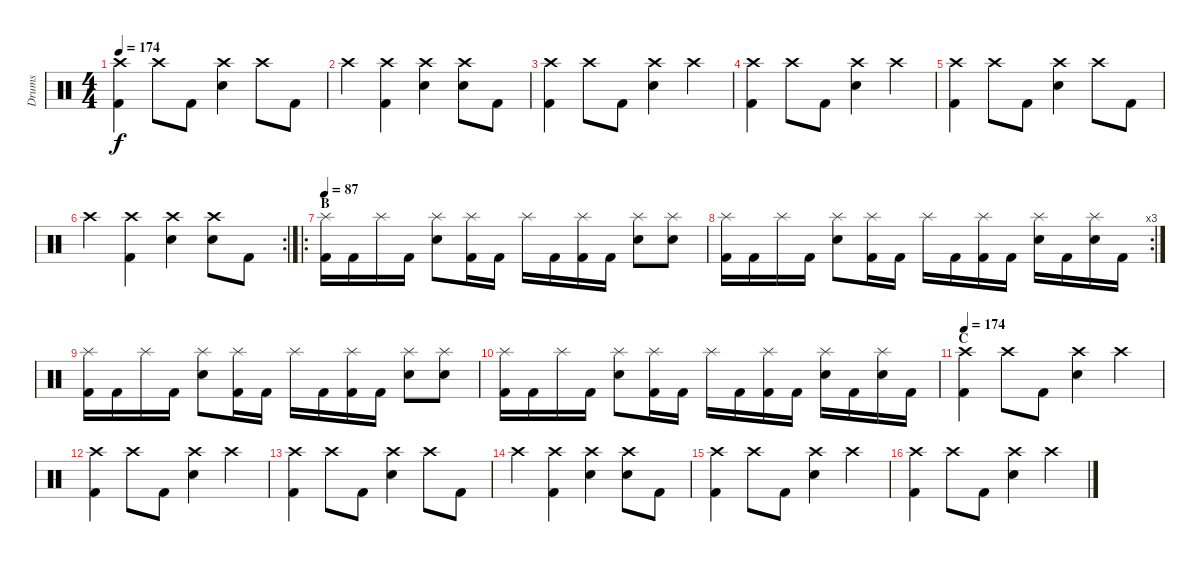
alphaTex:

\track ("Drums" "Drums") {instrument percussion}
\staff {score}
\articulation defaults
\ts (4 4)
\tempo 174
\clef neutral
\ks c
("Crash high (hit)" "Kick (hit) 2").4{dy f} "Crash high (hit)".8 "Kick (hit) 2".8 ("Crash high (hit)" "Electric Snare (hit)").4 "Crash high (hit)".8 "Kick (hit) 2".8 |
"Crash high (hit)".4 ("Crash high (hit)" "Kick (hit) 2").4 ("Crash high (hit)" "Electric Snare (hit)").4 ("Crash high (hit)" "Electric Snare (hit)").8 "Kick (hit) 2".8 |
("Crash high (hit)" "Kick (hit) 2").4 "Crash high (hit)".8 "Kick (hit) 2".8 ("Crash high (hit)" "Electric Snare (hit)").4 "Crash high (hit)".4 |
("Crash high (hit)" "Kick (hit) 2").4 "Crash high (hit)".8 "Kick (hit) 2".8 ("Crash high (hit)" "Electric Snare (hit)").4 "Crash high (hit)".4 |
("Crash high (hit)" "Kick (hit) 2").4 "Crash high (hit)".8 "Kick (hit) 2".8 ("Crash high (hit)" "Electric Snare (hit)").4 "Crash high (hit)".8 "Kick (hit) 2".8 |
\rc 2 "Crash high (hit)".4
("Crash high (hit)" "Kick (hit) 2").4 ("Crash high (hit)" "Electric Snare (hit)").4 ("Crash high (hit)" "Electric Snare (hit)").8 "Kick (hit) 2".8 |
\ro
\section ("" "B")
\tempo 87
("Splash (hit)" "Kick (hit) 2").16 "Kick (hit) 2".16 "Splash (hit)".16 "Kick (hit) 2".16 ("Splash (hit)" "Electric Snare (hit)").8 ("Splash (hit)" "Kick (hit) 2").16 "Kick (hit) 2".16 "Splash (hit)".16 "Kick (hit) 2".16 ("Splash (hit)" "Kick (hit) 2").16 "Kick (hit) 2".16 ("Splash (hit)" "Electric Snare (hit)").8 ("Splash (hit)" "Electric Snare (hit)").8 |
\rc 3
("Splash (hit)" "Kick (hit) 2").16 "Kick (hit) 2".16 "Splash (hit)".16 "Kick (hit) 2".16 ("Splash (hit)" "Electric Snare (hit)").8 ("Splash (hit)" "Kick (hit) 2").16 "Kick (hit) 2".16 "Splash (hit)".16 "Kick (hit) 2".16 ("Splash (hit)" "Kick (hit) 2").16 "Kick (hit) 2".16 ("Splash (hit)" "Electric Snare (hit)").16 "Kick (hit) 2".16 ("Splash (hit)" "Electric Snare (hit)").16 "Kick (hit) 2".16 |
("Splash (hit)" "Kick (hit) 2").16 "Kick (hit) 2".16 "Splash (hit)".16 "Kick (hit) 2".16 ("Splash (hit)" "Electric Snare (hit)").8 ("Splash (hit)" "Kick (hit) 2").16 "Kick (hit) 2".16 "Splash (hit)".16 "Kick (hit) 2".16 ("Splash (hit)" "Kick (hit) 2").16 "Kick (hit) 2".16 ("Splash (hit)" "Electric Snare (hit)").8 ("Splash (hit)" "Electric Snare (hit)").8 |
("Splash (hit)" "Kick (hit) 2").16 "Kick (hit) 2".16 "Splash (hit)".16 "Kick (hit) 2".16 ("Splash (hit)" "Electric Snare (hit)").8 ("Splash (hit)" "Kick (hit) 2").16 "Kick (hit) 2".16 "Splash (hit)".16 "Kick (hit) 2".16 ("Splash (hit)" "Kick (hit) 2").16 "Kick (hit) 2".16 ("Splash (hit)" "Electric Snare (hit)").16 "Kick (hit) 2".16 ("Splash (hit)" "Electric Snare (hit)").16 "Kick (hit) 2".16 |
\section ("" "C")
\tempo 174
("Crash high (hit)" "Kick (hit) 2").4 "Crash high (hit)".8 "Kick (hit) 2".8 ("Crash high (hit)" "Electric Snare (hit)").4 "Crash high (hit)".4 |
("Crash high (hit)" "Kick (hit) 2").4 "Crash high (hit)".8 "Kick (hit) 2".8 ("Crash high (hit)" "Electric Snare (hit)").4 "Crash high (hit)".4 |
("Crash high (hit)" "Kick (hit) 2").4 "Crash high (hit)".8 "Kick (hit) 2".8 ("Crash high (hit)" "Electric Snare (hit)").4 "Crash high (hit)".8 "Kick (hit) 2".8 |
"Crash high (hit)".4 ("Crash high (hit)" "Kick (hit) 2").4 ("Crash high (hit)" "Electric Snare (hit)").4 ("Crash high (hit)" "Electric Snare (hit)").8 "Kick (hit) 2".8 |
("Crash high (hit)" "Kick (hit) 2").4 "Crash high (hit)".8 "Kick (hit) 2".8 ("Crash high (hit)" "Electric Snare (hit)").4 "Crash high (hit)".4 |
("Crash high (hit)" "Kick (hit) 2").4 "Crash high (hit)".8 "Kick (hit) 2".8 ("Crash high (hit)" "Electric Snare (hit)").4 "Crash high (hit)".4
